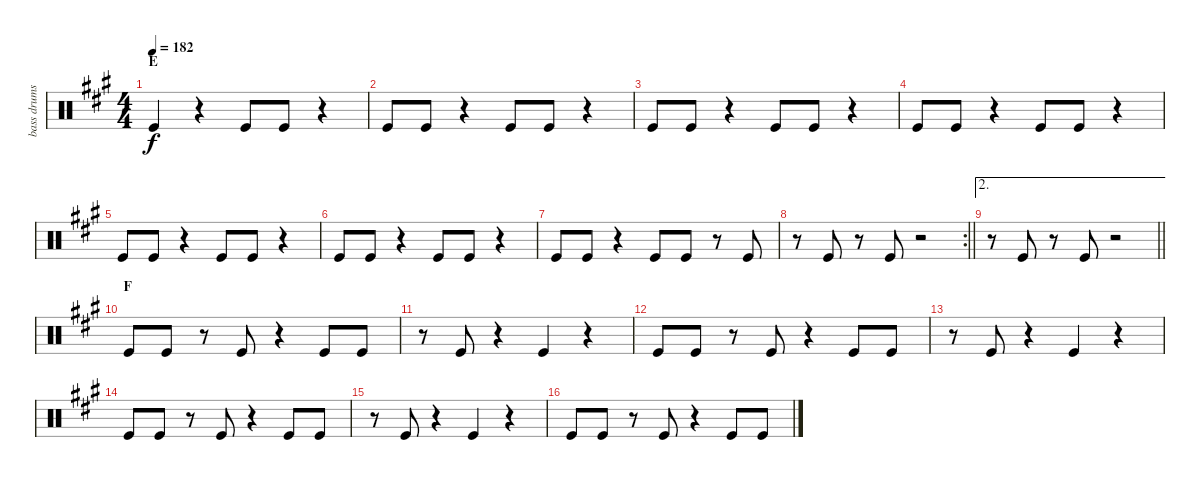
\track ("bass drums" "bass drums") {instrument percussion}
\staff {score}
\articulation defaults
\ts (4 4)
\section ("" "E")
\tempo 182
\clef neutral
\ks f#minor "Kick (hit)".4{dy f}
r.4 "Kick (hit)".8 "Kick (hit)".8 r.4 |
"Kick (hit)".8 "Kick (hit)".8 r.4 "Kick (hit)".8 "Kick (hit)".8 r.4 |
"Kick (hit)".8 "Kick (hit)".8 r.4 "Kick (hit)".8 "Kick (hit)".8 r.4 |
"Kick (hit)".8 "Kick (hit)".8 r.4 "Kick (hit)".8 "Kick (hit)".8 r.4 |
"Kick (hit)".8 "Kick (hit)".8 r.4 "Kick (hit)".8 "Kick (hit)".8 r.4 |
"Kick (hit)".8 "Kick (hit)".8 r.4 "Kick (hit)".8 "Kick (hit)".8 r.4 |
"Kick (hit)".8 "Kick (hit)".8 r.4 "Kick (hit)".8 "Kick (hit)".8 r.8 "Kick (hit)".8 |
\rc 2
\barLineRight lightlight
r.8 "Kick (hit)".8 r.8 "Kick (hit)".8 r.2 |
\ae 2
\barLineRight lightlight
r.8 "Kick (hit)".8 r.8 "Kick (hit)".8 r.2 |
\section ("" "F")
"Kick (hit)".8 "Kick (hit)".8 r.8 "Kick (hit)".8 r.4 "Kick (hit)".8 "Kick (hit)".8 |
r.8 "Kick (hit)".8 r.4 "Kick (hit)".4 r.4 |
"Kick (hit)".8 "Kick (hit)".8 r.8 "Kick (hit)".8 r.4 "Kick (hit)".8 "Kick (hit)".8 |
r.8 "Kick (hit)".8 r.4 "Kick (hit)".4 r.4 |
"Kick (hit)".8 "Kick (hit)".8 r.8 "Kick (hit)".8 r.4 "Kick (hit)".8 "Kick (hit)".8 |
r.8 "Kick (hit)".8 r.4 "Kick (hit)".4 r.4 |
"Kick (hit)".8 "Kick (hit)".8 r.8 "Kick (hit)".8 r.4 "Kick (hit)".8 "Kick (hit)".8
